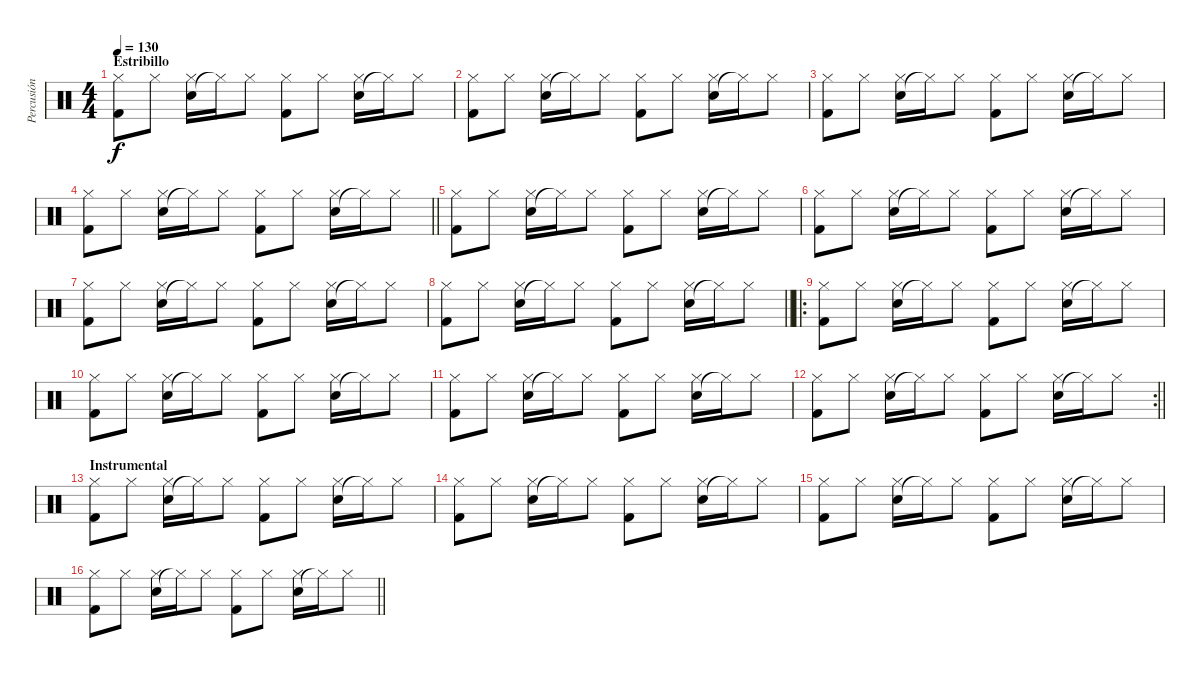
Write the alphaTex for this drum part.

\track ("Percusión" "Percusión") {instrument percussion}
\staff {score}
\articulation defaults
\ts (4 4)
\section ("" "Estribillo")
\tempo 130
\clef neutral
\ks c
("Kick (hit) 2" "Hi-Hat (closed)").8{dy f} "Hi-Hat (closed)".8 ("Snare (hit) 2" "Hi-Hat (closed)").16 "Hi-Hat (closed)"{t}.16 "Hi-Hat (closed)".8 ("Kick (hit) 2" "Hi-Hat (closed)").8 "Hi-Hat (closed)".8 ("Snare (hit) 2" "Hi-Hat (closed)").16 "Hi-Hat (closed)"{t}.16 "Hi-Hat (closed)".8 |
("Kick (hit) 2" "Hi-Hat (closed)").8 "Hi-Hat (closed)".8 ("Snare (hit) 2" "Hi-Hat (closed)").16 "Hi-Hat (closed)"{t}.16 "Hi-Hat (closed)".8 ("Kick (hit) 2" "Hi-Hat (closed)").8 "Hi-Hat (closed)".8 ("Snare (hit) 2" "Hi-Hat (closed)").16 "Hi-Hat (closed)"{t}.16 "Hi-Hat (closed)".8 |
("Kick (hit) 2" "Hi-Hat (closed)").8 "Hi-Hat (closed)".8 ("Snare (hit) 2" "Hi-Hat (closed)").16 "Hi-Hat (closed)"{t}.16 "Hi-Hat (closed)".8 ("Kick (hit) 2" "Hi-Hat (closed)").8 "Hi-Hat (closed)".8 ("Snare (hit) 2" "Hi-Hat (closed)").16 "Hi-Hat (closed)"{t}.16 "Hi-Hat (closed)".8 |
\barLineRight lightlight
("Kick (hit) 2" "Hi-Hat (closed)").8 "Hi-Hat (closed)".8 ("Snare (hit) 2" "Hi-Hat (closed)").16 "Hi-Hat (closed)"{t}.16 "Hi-Hat (closed)".8 ("Kick (hit) 2" "Hi-Hat (closed)").8 "Hi-Hat (closed)".8 ("Snare (hit) 2" "Hi-Hat (closed)").16 "Hi-Hat (closed)"{t}.16 "Hi-Hat (closed)".8 |
("Kick (hit) 2" "Hi-Hat (closed)").8 "Hi-Hat (closed)".8 ("Snare (hit) 2" "Hi-Hat (closed)").16 "Hi-Hat (closed)"{t}.16 "Hi-Hat (closed)".8 ("Kick (hit) 2" "Hi-Hat (closed)").8 "Hi-Hat (closed)".8 ("Snare (hit) 2" "Hi-Hat (closed)").16 "Hi-Hat (closed)"{t}.16 "Hi-Hat (closed)".8 |
("Kick (hit) 2" "Hi-Hat (closed)").8 "Hi-Hat (closed)".8 ("Snare (hit) 2" "Hi-Hat (closed)").16 "Hi-Hat (closed)"{t}.16 "Hi-Hat (closed)".8 ("Kick (hit) 2" "Hi-Hat (closed)").8 "Hi-Hat (closed)".8 ("Snare (hit) 2" "Hi-Hat (closed)").16 "Hi-Hat (closed)"{t}.16 "Hi-Hat (closed)".8 |
("Kick (hit) 2" "Hi-Hat (closed)").8 "Hi-Hat (closed)".8 ("Snare (hit) 2" "Hi-Hat (closed)").16 "Hi-Hat (closed)"{t}.16 "Hi-Hat (closed)".8 ("Kick (hit) 2" "Hi-Hat (closed)").8 "Hi-Hat (closed)".8 ("Snare (hit) 2" "Hi-Hat (closed)").16 "Hi-Hat (closed)"{t}.16 "Hi-Hat (closed)".8 |
\barLineRight lightlight
("Kick (hit) 2" "Hi-Hat (closed)").8 "Hi-Hat (closed)".8 ("Snare (hit) 2" "Hi-Hat (closed)").16 "Hi-Hat (closed)"{t}.16 "Hi-Hat (closed)".8 ("Kick (hit) 2" "Hi-Hat (closed)").8 "Hi-Hat (closed)".8 ("Snare (hit) 2" "Hi-Hat (closed)").16 "Hi-Hat (closed)"{t}.16 "Hi-Hat (closed)".8 |
\ro
("Kick (hit) 2" "Hi-Hat (closed)").8 "Hi-Hat (closed)".8 ("Snare (hit) 2" "Hi-Hat (closed)").16 "Hi-Hat (closed)"{t}.16 "Hi-Hat (closed)".8 ("Kick (hit) 2" "Hi-Hat (closed)").8 "Hi-Hat (closed)".8 ("Snare (hit) 2" "Hi-Hat (closed)").16 "Hi-Hat (closed)"{t}.16 "Hi-Hat (closed)".8 |
("Kick (hit) 2" "Hi-Hat (closed)").8 "Hi-Hat (closed)".8 ("Snare (hit) 2" "Hi-Hat (closed)").16 "Hi-Hat (closed)"{t}.16 "Hi-Hat (closed)".8 ("Kick (hit) 2" "Hi-Hat (closed)").8 "Hi-Hat (closed)".8 ("Snare (hit) 2" "Hi-Hat (closed)").16 "Hi-Hat (closed)"{t}.16 "Hi-Hat (closed)".8 |
("Kick (hit) 2" "Hi-Hat (closed)").8 "Hi-Hat (closed)".8 ("Snare (hit) 2" "Hi-Hat (closed)").16 "Hi-Hat (closed)"{t}.16 "Hi-Hat (closed)".8 ("Kick (hit) 2" "Hi-Hat (closed)").8 "Hi-Hat (closed)".8 ("Snare (hit) 2" "Hi-Hat (closed)").16 "Hi-Hat (closed)"{t}.16 "Hi-Hat (closed)".8 |
\rc 2
\barLineRight lightlight
("Kick (hit) 2" "Hi-Hat (closed)").8 "Hi-Hat (closed)".8 ("Snare (hit) 2" "Hi-Hat (closed)").16 "Hi-Hat (closed)"{t}.16 "Hi-Hat (closed)".8 ("Kick (hit) 2" "Hi-Hat (closed)").8 "Hi-Hat (closed)".8 ("Snare (hit) 2" "Hi-Hat (closed)").16 "Hi-Hat (closed)"{t}.16 "Hi-Hat (closed)".8 |
\section ("" "Instrumental")
("Kick (hit) 2" "Hi-Hat (closed)").8 "Hi-Hat (closed)".8 ("Snare (hit) 2" "Hi-Hat (closed)").16 "Hi-Hat (closed)"{t}.16 "Hi-Hat (closed)".8 ("Kick (hit) 2" "Hi-Hat (closed)").8 "Hi-Hat (closed)".8 ("Snare (hit) 2" "Hi-Hat (closed)").16 "Hi-Hat (closed)"{t}.16 "Hi-Hat (closed)".8 |
("Kick (hit) 2" "Hi-Hat (closed)").8 "Hi-Hat (closed)".8 ("Snare (hit) 2" "Hi-Hat (closed)").16 "Hi-Hat (closed)"{t}.16 "Hi-Hat (closed)".8 ("Kick (hit) 2" "Hi-Hat (closed)").8 "Hi-Hat (closed)".8 ("Snare (hit) 2" "Hi-Hat (closed)").16 "Hi-Hat (closed)"{t}.16 "Hi-Hat (closed)".8 |
("Kick (hit) 2" "Hi-Hat (closed)").8 "Hi-Hat (closed)".8 ("Snare (hit) 2" "Hi-Hat (closed)").16 "Hi-Hat (closed)"{t}.16 "Hi-Hat (closed)".8 ("Kick (hit) 2" "Hi-Hat (closed)").8 "Hi-Hat (closed)".8 ("Snare (hit) 2" "Hi-Hat (closed)").16 "Hi-Hat (closed)"{t}.16 "Hi-Hat (closed)".8 |
\barLineRight lightlight
("Kick (hit) 2" "Hi-Hat (closed)").8 "Hi-Hat (closed)".8 ("Snare (hit) 2" "Hi-Hat (closed)").16 "Hi-Hat (closed)"{t}.16 "Hi-Hat (closed)".8 ("Kick (hit) 2" "Hi-Hat (closed)").8 "Hi-Hat (closed)".8 ("Snare (hit) 2" "Hi-Hat (closed)").16 "Hi-Hat (closed)"{t}.16 "Hi-Hat (closed)".8
